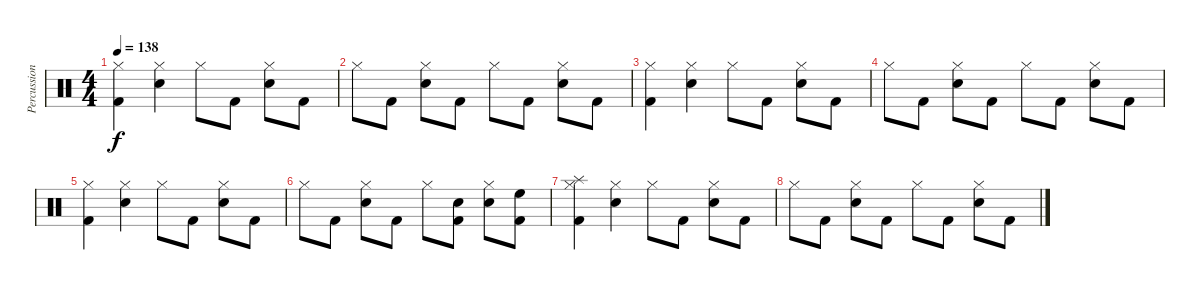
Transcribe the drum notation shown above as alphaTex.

\track ("Percussion" "Percussion") {instrument percussion}
\staff {score}
\articulation defaults
\ts (4 4)
\tempo 138
\clef neutral
\ks c
("Hi-Hat (closed)" "Kick (hit) 2").4{dy f} ("Hi-Hat (closed)" "Snare (hit) 2").4 "Hi-Hat (closed)".8 "Kick (hit) 2".8 ("Hi-Hat (closed)" "Snare (hit) 2").8 "Kick (hit) 2".8 |
"Hi-Hat (closed)".8 "Kick (hit) 2".8 ("Hi-Hat (closed)" "Snare (hit) 2").8 "Kick (hit) 2".8 "Hi-Hat (closed)".8 "Kick (hit) 2".8 ("Hi-Hat (closed)" "Snare (hit) 2").8 "Kick (hit) 2".8 |
("Hi-Hat (closed)" "Kick (hit) 2").4 ("Hi-Hat (closed)" "Snare (hit) 2").4 "Hi-Hat (closed)".8 "Kick (hit) 2".8 ("Hi-Hat (closed)" "Snare (hit) 2").8 "Kick (hit) 2".8 |
"Hi-Hat (closed)".8 "Kick (hit) 2".8 ("Hi-Hat (closed)" "Snare (hit) 2").8 "Kick (hit) 2".8 "Hi-Hat (closed)".8 "Kick (hit) 2".8 ("Hi-Hat (closed)" "Snare (hit) 2").8 "Kick (hit) 2".8 |
("Hi-Hat (closed)" "Kick (hit) 2").4 ("Hi-Hat (closed)" "Snare (hit) 2").4 "Hi-Hat (closed)".8 "Kick (hit) 2".8 ("Hi-Hat (closed)" "Snare (hit) 2").8 "Kick (hit) 2".8 |
"Hi-Hat (closed)".8 "Kick (hit) 2".8 ("Hi-Hat (closed)" "Snare (hit) 2").8 "Kick (hit) 2".8 "Hi-Hat (closed)".8 ("Kick (hit) 2" "Snare (hit) 2").8 ("Hi-Hat (closed)" "Snare (hit) 2").8 ("High Floor Tom (hit)" "Kick (hit) 2").8 |
("Hi-Hat (closed)" "Kick (hit) 2" "Splash (hit)").4 ("Hi-Hat (closed)" "Snare (hit) 2").4 "Hi-Hat (closed)".8 "Kick (hit) 2".8 ("Hi-Hat (closed)" "Snare (hit) 2").8 "Kick (hit) 2".8 |
"Hi-Hat (closed)".8 "Kick (hit) 2".8 ("Hi-Hat (closed)" "Snare (hit) 2").8 "Kick (hit) 2".8 "Hi-Hat (closed)".8 "Kick (hit) 2".8 ("Hi-Hat (closed)" "Snare (hit) 2").8 "Kick (hit) 2".8
